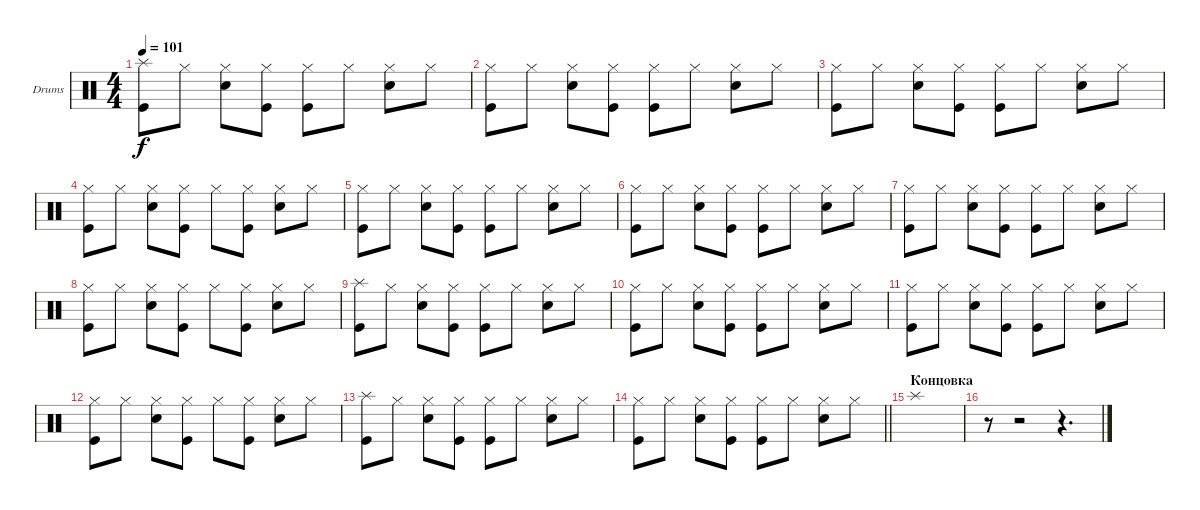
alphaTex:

\bracketExtendMode groupsimilarinstruments
\firstSystemTrackNameOrientation horizontal
\otherSystemsTrackNameOrientation horizontal
\track ("Drumkit" "Drums") {instrument percussion}
\staff {score}
\articulation defaults
\ts (4 4)
\tempo 101
\clef neutral
\ks c
("Splash (hit)" "Kick (hit)").8{dy f} "Hi-Hat (closed)".8 ("Hi-Hat (closed)" "Snare (hit) 2").8 ("Hi-Hat (closed)" "Kick (hit)").8 ("Hi-Hat (closed)" "Kick (hit)").8 "Hi-Hat (closed)".8 ("Hi-Hat (closed)" "Snare (hit) 2").8 "Hi-Hat (closed)".8 |
("Hi-Hat (closed)" "Kick (hit)").8 "Hi-Hat (closed)".8 ("Hi-Hat (closed)" "Snare (hit) 2").8 ("Hi-Hat (closed)" "Kick (hit)").8 ("Hi-Hat (closed)" "Kick (hit)").8 "Hi-Hat (closed)".8 ("Hi-Hat (closed)" "Snare (hit) 2").8 "Hi-Hat (closed)".8 |
("Hi-Hat (closed)" "Kick (hit)").8 "Hi-Hat (closed)".8 ("Hi-Hat (closed)" "Snare (hit) 2").8 ("Hi-Hat (closed)" "Kick (hit)").8 ("Hi-Hat (closed)" "Kick (hit)").8 "Hi-Hat (closed)".8 ("Hi-Hat (closed)" "Snare (hit) 2").8 "Hi-Hat (closed)".8 |
("Hi-Hat (closed)" "Kick (hit)").8 "Hi-Hat (closed)".8 ("Hi-Hat (closed)" "Snare (hit) 2").8 ("Hi-Hat (closed)" "Kick (hit)").8 "Hi-Hat (closed)".8 ("Hi-Hat (closed)" "Kick (hit)").8 ("Hi-Hat (closed)" "Snare (hit) 2").8 "Hi-Hat (closed)".8 |
("Hi-Hat (closed)" "Kick (hit)").8 "Hi-Hat (closed)".8 ("Hi-Hat (closed)" "Snare (hit) 2").8 ("Hi-Hat (closed)" "Kick (hit)").8 ("Hi-Hat (closed)" "Kick (hit)").8 "Hi-Hat (closed)".8 ("Hi-Hat (closed)" "Snare (hit) 2").8 "Hi-Hat (closed)".8 |
("Hi-Hat (closed)" "Kick (hit)").8 "Hi-Hat (closed)".8 ("Hi-Hat (closed)" "Snare (hit) 2").8 ("Hi-Hat (closed)" "Kick (hit)").8 ("Hi-Hat (closed)" "Kick (hit)").8 "Hi-Hat (closed)".8 ("Hi-Hat (closed)" "Snare (hit) 2").8 "Hi-Hat (closed)".8 |
("Hi-Hat (closed)" "Kick (hit)").8 "Hi-Hat (closed)".8 ("Hi-Hat (closed)" "Snare (hit) 2").8 ("Hi-Hat (closed)" "Kick (hit)").8 ("Hi-Hat (closed)" "Kick (hit)").8 "Hi-Hat (closed)".8 ("Hi-Hat (closed)" "Snare (hit) 2").8 "Hi-Hat (closed)".8 |
("Hi-Hat (closed)" "Kick (hit)").8 "Hi-Hat (closed)".8 ("Hi-Hat (closed)" "Snare (hit) 2").8 ("Hi-Hat (closed)" "Kick (hit)").8 "Hi-Hat (closed)".8 ("Hi-Hat (closed)" "Kick (hit)").8 ("Hi-Hat (closed)" "Snare (hit) 2").8 "Hi-Hat (closed)".8 |
("Splash (hit)" "Kick (hit)").8 "Hi-Hat (closed)".8 ("Hi-Hat (closed)" "Snare (hit) 2").8 ("Hi-Hat (closed)" "Kick (hit)").8 ("Hi-Hat (closed)" "Kick (hit)").8 "Hi-Hat (closed)".8 ("Hi-Hat (closed)" "Snare (hit) 2").8 "Hi-Hat (closed)".8 |
("Hi-Hat (closed)" "Kick (hit)").8 "Hi-Hat (closed)".8 ("Hi-Hat (closed)" "Snare (hit) 2").8 ("Hi-Hat (closed)" "Kick (hit)").8 ("Hi-Hat (closed)" "Kick (hit)").8 "Hi-Hat (closed)".8 ("Hi-Hat (closed)" "Snare (hit) 2").8 "Hi-Hat (closed)".8 |
("Hi-Hat (closed)" "Kick (hit)").8 "Hi-Hat (closed)".8 ("Hi-Hat (closed)" "Snare (hit) 2").8 ("Hi-Hat (closed)" "Kick (hit)").8 ("Hi-Hat (closed)" "Kick (hit)").8 "Hi-Hat (closed)".8 ("Hi-Hat (closed)" "Snare (hit) 2").8 "Hi-Hat (closed)".8 |
("Hi-Hat (closed)" "Kick (hit)").8 "Hi-Hat (closed)".8 ("Hi-Hat (closed)" "Snare (hit) 2").8 ("Hi-Hat (closed)" "Kick (hit)").8 "Hi-Hat (closed)".8 ("Hi-Hat (closed)" "Kick (hit)").8 ("Hi-Hat (closed)" "Snare (hit) 2").8 "Hi-Hat (closed)".8 |
("Splash (hit)" "Kick (hit)").8 "Hi-Hat (closed)".8 ("Hi-Hat (closed)" "Snare (hit) 2").8 ("Hi-Hat (closed)" "Kick (hit)").8 ("Hi-Hat (closed)" "Kick (hit)").8 "Hi-Hat (closed)".8 ("Hi-Hat (closed)" "Snare (hit) 2").8 "Hi-Hat (closed)".8 |
\barLineRight lightlight
("Hi-Hat (closed)" "Kick (hit)").8 "Hi-Hat (closed)".8 ("Hi-Hat (closed)" "Snare (hit) 2").8 ("Hi-Hat (closed)" "Kick (hit)").8 ("Hi-Hat (closed)" "Kick (hit)").8 "Hi-Hat (closed)".8 ("Hi-Hat (closed)" "Snare (hit) 2").8 "Hi-Hat (closed)".8 |
\section ("" "Концовка")
"Splash (hit)".1 |
r.8 r.2 r.4{d}
